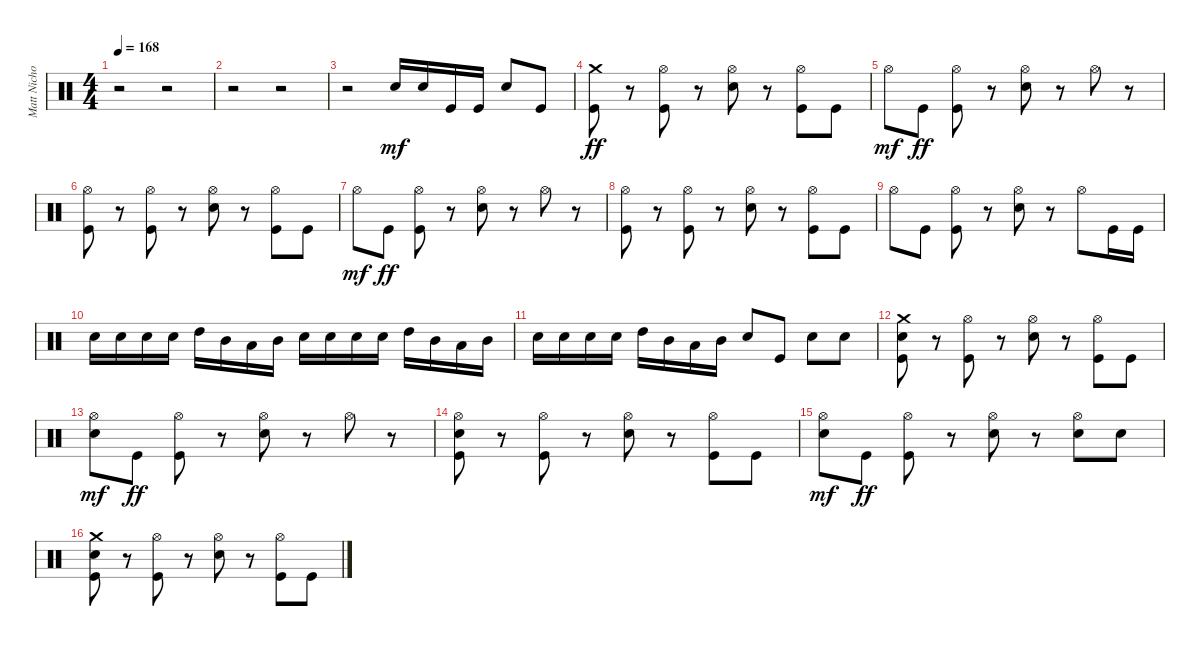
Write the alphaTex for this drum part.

\track ("Matt Nicholls" "Matt Nicho") {instrument percussion}
\staff {score}
\articulation defaults
\ts (4 4)
\tempo 168
\clef neutral
\ks c
r.2{dy ff} r.2 |
r.2 r.2 |
r.2 "Snare (hit) 2".16{dy mf} "Snare (hit) 2".16 "Kick (hit)".16 "Kick (hit)".16 "Snare (hit) 2".8 "Kick (hit)".8 |
("Kick (hit)" "Crash medium (hit)").8{dy ff} r.8 ("Kick (hit)" "Hi-Hat (open)").8 r.8 ("Snare (hit) 2" "Hi-Hat (open)").8 r.8 ("Kick (hit)" "Hi-Hat (open)").8 "Kick (hit)".8 |
"Hi-Hat (open)".8{dy mf} "Kick (hit)".8{dy ff} ("Kick (hit)" "Hi-Hat (open)").8 r.8 ("Hi-Hat (open)" "Snare (hit) 2").8 r.8 "Hi-Hat (open)".8 r.8 |
("Kick (hit)" "Hi-Hat (open)").8 r.8 ("Kick (hit)" "Hi-Hat (open)").8 r.8 ("Snare (hit) 2" "Hi-Hat (open)").8 r.8 ("Kick (hit)" "Hi-Hat (open)").8 "Kick (hit)".8 |
"Hi-Hat (open)".8{dy mf} "Kick (hit)".8{dy ff} ("Kick (hit)" "Hi-Hat (open)").8 r.8 ("Hi-Hat (open)" "Snare (hit) 2").8 r.8 "Hi-Hat (open)".8 r.8 |
("Kick (hit)" "Hi-Hat (open)").8 r.8 ("Kick (hit)" "Hi-Hat (open)").8 r.8 ("Snare (hit) 2" "Hi-Hat (open)").8 r.8 ("Kick (hit)" "Hi-Hat (open)").8 "Kick (hit)".8 |
"Hi-Hat (open)".8 "Kick (hit)".8 ("Kick (hit)" "Hi-Hat (open)").8 r.8 ("Hi-Hat (open)" "Snare (hit) 2").8 r.8 "Hi-Hat (open)".8 "Kick (hit)".16 "Kick (hit)".16 |
"Snare (hit) 2".16 "Snare (hit) 2".16 "Snare (hit) 2".16 "Snare (hit) 2".16 "High Tom (hit)".16 "Mid Tom (hit)".16 "Low Tom (hit)".16 "Mid Tom (hit)".16 "Snare (hit) 2".16 "Snare (hit) 2".16 "Snare (hit) 2".16 "Snare (hit) 2".16 "High Tom (hit)".16 "Mid Tom (hit)".16 "Low Tom (hit)".16 "Mid Tom (hit)".16 |
"Snare (hit) 2".16 "Snare (hit) 2".16 "Snare (hit) 2".16 "Snare (hit) 2".16 "High Tom (hit)".16 "Mid Tom (hit)".16 "Low Tom (hit)".16 "Mid Tom (hit)".16 "Snare (hit) 2".8 "Kick (hit)".8 "Snare (hit) 2".8 "Snare (hit) 2".8 |
("Kick (hit)" "Crash medium (hit)" "Snare (hit) 2").8 r.8 ("Kick (hit)" "Hi-Hat (open)").8 r.8 ("Snare (hit) 2" "Hi-Hat (open)").8 r.8 ("Kick (hit)" "Hi-Hat (open)").8 "Kick (hit)".8 |
("Hi-Hat (open)" "Snare (hit) 2").8{dy mf} "Kick (hit)".8{dy ff} ("Kick (hit)" "Hi-Hat (open)").8 r.8 ("Hi-Hat (open)" "Snare (hit) 2").8 r.8 "Hi-Hat (open)".8 r.8 |
("Kick (hit)" "Hi-Hat (open)" "Snare (hit) 2").8 r.8 ("Kick (hit)" "Hi-Hat (open)").8 r.8 ("Snare (hit) 2" "Hi-Hat (open)").8 r.8 ("Kick (hit)" "Hi-Hat (open)").8 "Kick (hit)".8 |
("Hi-Hat (open)" "Snare (hit) 2").8{dy mf} "Kick (hit)".8{dy ff} ("Kick (hit)" "Hi-Hat (open)").8 r.8 ("Hi-Hat (open)" "Snare (hit) 2").8 r.8 ("Hi-Hat (open)" "Snare (hit) 2").8 "Snare (hit) 2".8 |
("Kick (hit)" "Crash medium (hit)" "Snare (hit) 2").8 r.8 ("Kick (hit)" "Hi-Hat (open)").8 r.8 ("Snare (hit) 2" "Hi-Hat (open)").8 r.8 ("Kick (hit)" "Hi-Hat (open)").8 "Kick (hit)".8
